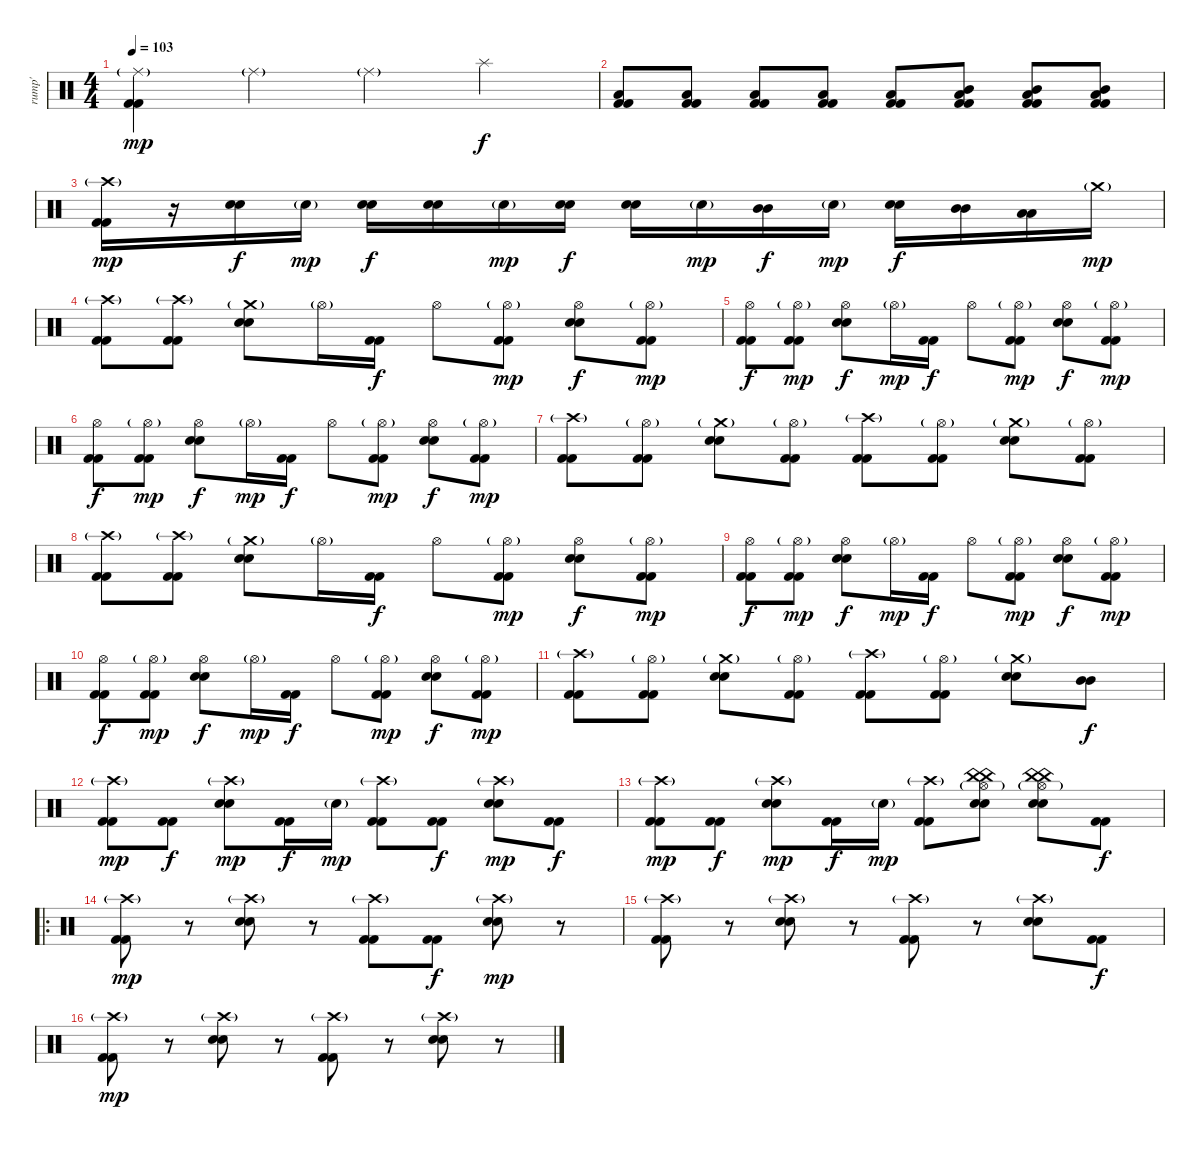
\track ("rump'" "rump'") {instrument percussion}
\staff {score}
\articulation defaults
\ts (4 4)
\tempo 103
\clef neutral
\ks c
("Ride (middle)"{g} "Kick (hit) 2" "Kick (hit) 2").4{dy mp} "Ride (middle)"{g}.4 "Ride (middle)"{g}.4 "Splash (hit)".4{dy f} |
("Low Tom (hit)" "Kick (hit) 2" "Kick (hit) 2").8 ("Low Tom (hit)" "Kick (hit) 2" "Kick (hit) 2").8 ("Low Tom (hit)" "Kick (hit) 2" "Kick (hit) 2").8 ("Low Tom (hit)" "Kick (hit) 2" "Kick (hit) 2").8 ("Low Tom (hit)" "Kick (hit) 2" "Kick (hit) 2").8 ("Mid Tom (hit)" "Low Tom (hit)" "Kick (hit) 2" "Kick (hit) 2").8 ("Mid Tom (hit)" "Low Tom (hit)" "Kick (hit) 2" "Kick (hit) 2").8 ("Mid Tom (hit)" "Low Tom (hit)" "Kick (hit) 2" "Kick (hit) 2").8 |
("Crash high (hit)"{g} "Kick (hit) 2" "Kick (hit) 2").16{dy mp} r.16 ("Electric Snare (hit)" "Electric Snare (hit)").16{dy f} "Electric Snare (hit)"{g}.16{dy mp} ("Electric Snare (hit)" "Electric Snare (hit)").16{dy f} ("Electric Snare (hit)" "Electric Snare (hit)").16 "Electric Snare (hit)"{g}.16{dy mp} ("Electric Snare (hit)" "Electric Snare (hit)").16{dy f} ("Electric Snare (hit)" "Electric Snare (hit)").16 "Electric Snare (hit)"{g}.16{dy mp} ("Mid Tom (hit)" "Mid Tom (hit)").16{dy f} "Electric Snare (hit)"{g}.16{dy mp} ("Electric Snare (hit)" "Electric Snare (hit)").16{dy f} ("Mid Tom (hit)" "Mid Tom (hit)").16 ("Low Tom (hit)" "Low Tom (hit)").16 "Crash medium (hit)"{g}.16{dy mp} |
("Crash high (hit)"{g} "Kick (hit) 2" "Kick (hit) 2").8 ("Crash high (hit)"{g} "Kick (hit) 2" "Kick (hit) 2").8 ("Crash medium (hit)"{g} "Electric Snare (hit)" "Electric Snare (hit)").8 "Hi-Hat (open)"{g}.16 ("Kick (hit) 2" "Kick (hit) 2").16{dy f} "Hi-Hat (open)".8 ("Hi-Hat (open)"{g} "Kick (hit) 2" "Kick (hit) 2").8{dy mp} ("Hi-Hat (open)" "Electric Snare (hit)" "Electric Snare (hit)").8{dy f} ("Hi-Hat (open)"{g} "Kick (hit) 2" "Kick (hit) 2").8{dy mp} |
("Hi-Hat (open)" "Kick (hit) 2" "Kick (hit) 2").8{dy f} ("Hi-Hat (open)"{g} "Kick (hit) 2" "Kick (hit) 2").8{dy mp} ("Hi-Hat (open)" "Electric Snare (hit)" "Electric Snare (hit)").8{dy f} "Hi-Hat (open)"{g}.16{dy mp} ("Kick (hit) 2" "Kick (hit) 2").16{dy f} "Hi-Hat (open)".8 ("Hi-Hat (open)"{g} "Kick (hit) 2" "Kick (hit) 2").8{dy mp} ("Hi-Hat (open)" "Electric Snare (hit)" "Electric Snare (hit)").8{dy f} ("Hi-Hat (open)"{g} "Kick (hit) 2" "Kick (hit) 2").8{dy mp} |
("Hi-Hat (open)" "Kick (hit) 2" "Kick (hit) 2").8{dy f} ("Hi-Hat (open)"{g} "Kick (hit) 2" "Kick (hit) 2").8{dy mp} ("Hi-Hat (open)" "Electric Snare (hit)" "Electric Snare (hit)").8{dy f} "Hi-Hat (open)"{g}.16{dy mp} ("Kick (hit) 2" "Kick (hit) 2").16{dy f} "Hi-Hat (open)".8 ("Hi-Hat (open)"{g} "Kick (hit) 2" "Kick (hit) 2").8{dy mp} ("Hi-Hat (open)" "Electric Snare (hit)" "Electric Snare (hit)").8{dy f} ("Hi-Hat (open)"{g} "Kick (hit) 2" "Kick (hit) 2").8{dy mp} |
("Crash high (hit)"{g} "Kick (hit) 2" "Kick (hit) 2").8 ("Hi-Hat (open)"{g} "Kick (hit) 2" "Kick (hit) 2").8 ("Crash medium (hit)"{g} "Electric Snare (hit)" "Electric Snare (hit)").8 ("Hi-Hat (open)"{g} "Kick (hit) 2" "Kick (hit) 2").8 ("Crash high (hit)"{g} "Kick (hit) 2" "Kick (hit) 2").8 ("Hi-Hat (open)"{g} "Kick (hit) 2" "Kick (hit) 2").8 ("Crash medium (hit)"{g} "Electric Snare (hit)" "Electric Snare (hit)").8 ("Hi-Hat (open)"{g} "Kick (hit) 2" "Kick (hit) 2").8 |
("Crash high (hit)"{g} "Kick (hit) 2" "Kick (hit) 2").8 ("Crash high (hit)"{g} "Kick (hit) 2" "Kick (hit) 2").8 ("Crash medium (hit)"{g} "Electric Snare (hit)" "Electric Snare (hit)").8 "Hi-Hat (open)"{g}.16 ("Kick (hit) 2" "Kick (hit) 2").16{dy f} "Hi-Hat (open)".8 ("Hi-Hat (open)"{g} "Kick (hit) 2" "Kick (hit) 2").8{dy mp} ("Hi-Hat (open)" "Electric Snare (hit)" "Electric Snare (hit)").8{dy f} ("Hi-Hat (open)"{g} "Kick (hit) 2" "Kick (hit) 2").8{dy mp} |
("Hi-Hat (open)" "Kick (hit) 2" "Kick (hit) 2").8{dy f} ("Hi-Hat (open)"{g} "Kick (hit) 2" "Kick (hit) 2").8{dy mp} ("Hi-Hat (open)" "Electric Snare (hit)" "Electric Snare (hit)").8{dy f} "Hi-Hat (open)"{g}.16{dy mp} ("Kick (hit) 2" "Kick (hit) 2").16{dy f} "Hi-Hat (open)".8 ("Hi-Hat (open)"{g} "Kick (hit) 2" "Kick (hit) 2").8{dy mp} ("Hi-Hat (open)" "Electric Snare (hit)" "Electric Snare (hit)").8{dy f} ("Hi-Hat (open)"{g} "Kick (hit) 2" "Kick (hit) 2").8{dy mp} |
("Hi-Hat (open)" "Kick (hit) 2" "Kick (hit) 2").8{dy f} ("Hi-Hat (open)"{g} "Kick (hit) 2" "Kick (hit) 2").8{dy mp} ("Hi-Hat (open)" "Electric Snare (hit)" "Electric Snare (hit)").8{dy f} "Hi-Hat (open)"{g}.16{dy mp} ("Kick (hit) 2" "Kick (hit) 2").16{dy f} "Hi-Hat (open)".8 ("Hi-Hat (open)"{g} "Kick (hit) 2" "Kick (hit) 2").8{dy mp} ("Hi-Hat (open)" "Electric Snare (hit)" "Electric Snare (hit)").8{dy f} ("Hi-Hat (open)"{g} "Kick (hit) 2" "Kick (hit) 2").8{dy mp} |
("Crash high (hit)"{g} "Kick (hit) 2" "Kick (hit) 2").8 ("Hi-Hat (open)"{g} "Kick (hit) 2" "Kick (hit) 2").8 ("Crash medium (hit)"{g} "Electric Snare (hit)" "Electric Snare (hit)").8 ("Hi-Hat (open)"{g} "Kick (hit) 2" "Kick (hit) 2").8 ("Crash high (hit)"{g} "Kick (hit) 2" "Kick (hit) 2").8 ("Hi-Hat (open)"{g} "Kick (hit) 2" "Kick (hit) 2").8 ("Crash medium (hit)"{g} "Electric Snare (hit)" "Electric Snare (hit)").8 ("Mid Tom (hit)" "Mid Tom (hit)").8{dy f} |
("Crash high (hit)"{g} "Kick (hit) 2" "Kick (hit) 2").8{dy mp} ("Kick (hit) 2" "Kick (hit) 2").8{dy f} ("Crash high (hit)"{g} "Electric Snare (hit)" "Electric Snare (hit)").8{dy mp} ("Kick (hit) 2" "Kick (hit) 2").16{dy f} "Electric Snare (hit)"{g}.16{dy mp} ("Crash high (hit)"{g} "Kick (hit) 2" "Kick (hit) 2").8 ("Kick (hit) 2" "Kick (hit) 2").8{dy f} ("Crash high (hit)"{g} "Electric Snare (hit)" "Electric Snare (hit)").8{dy mp} ("Kick (hit) 2" "Kick (hit) 2").8{dy f} |
("Crash high (hit)"{g} "Kick (hit) 2" "Kick (hit) 2").8{dy mp} ("Kick (hit) 2" "Kick (hit) 2").8{dy f} ("Crash high (hit)"{g} "Electric Snare (hit)" "Electric Snare (hit)").8{dy mp} ("Kick (hit) 2" "Kick (hit) 2").16{dy f} "Electric Snare (hit)"{g}.16{dy mp} ("Crash high (hit)"{g} "Kick (hit) 2" "Kick (hit) 2").8 ("China (hit)" "China (hit)" "Hi-Hat (open)"{g} "Electric Snare (hit)" "Electric Snare (hit)").8 ("China (hit)" "China (hit)" "Hi-Hat (open)"{g} "Electric Snare (hit)" "Electric Snare (hit)").8 ("Kick (hit) 2" "Kick (hit) 2").8{dy f} |
\ro
("Crash high (hit)"{g} "Kick (hit) 2" "Kick (hit) 2").8{dy mp} r.8 ("Crash high (hit)"{g} "Electric Snare (hit)" "Electric Snare (hit)").8 r.8 ("Crash high (hit)"{g} "Kick (hit) 2" "Kick (hit) 2").8 ("Kick (hit) 2" "Kick (hit) 2").8{dy f} ("Crash high (hit)"{g} "Electric Snare (hit)" "Electric Snare (hit)").8{dy mp} r.8 |
("Crash high (hit)"{g} "Kick (hit) 2" "Kick (hit) 2").8 r.8 ("Crash high (hit)"{g} "Electric Snare (hit)" "Electric Snare (hit)").8 r.8 ("Crash high (hit)"{g} "Kick (hit) 2" "Kick (hit) 2").8 r.8 ("Crash high (hit)"{g} "Electric Snare (hit)" "Electric Snare (hit)").8 ("Kick (hit) 2" "Kick (hit) 2").8{dy f} |
("Crash high (hit)"{g} "Kick (hit) 2" "Kick (hit) 2").8{dy mp} r.8 ("Crash high (hit)"{g} "Electric Snare (hit)" "Electric Snare (hit)").8 r.8 ("Crash high (hit)"{g} "Kick (hit) 2" "Kick (hit) 2").8 r.8 ("Crash high (hit)"{g} "Electric Snare (hit)" "Electric Snare (hit)").8 r.8
